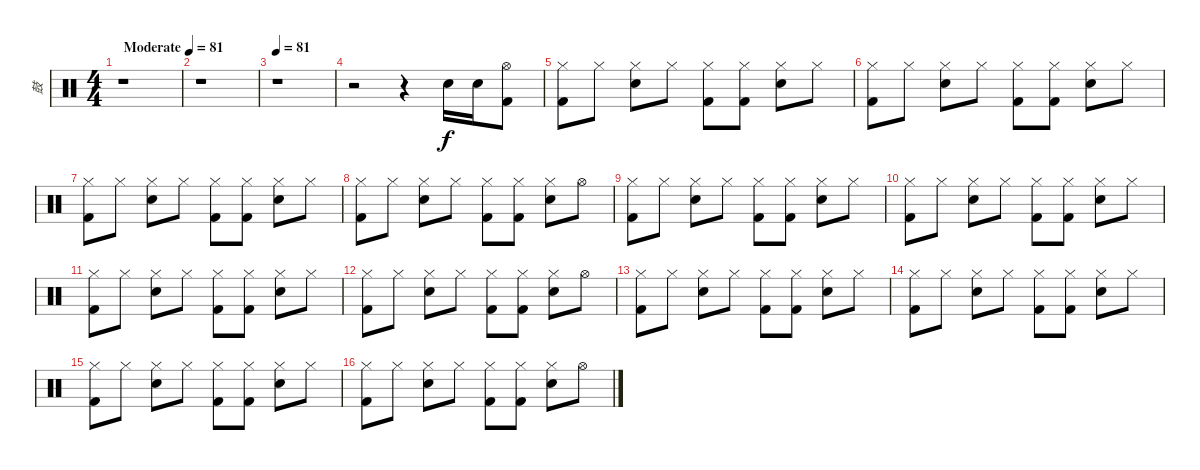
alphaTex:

\track ("鼓" "鼓") {instrument percussion}
\staff {score}
\articulation defaults
\ts (4 4)
\tempo (81 "Moderate")
\clef neutral
\ks c
r.1{dy f} |
r.1 |
\tempo 81
r.1 |
r.2 r.4 "Snare (hit) 2".16 "Snare (hit) 2".16 ("Hi-Hat (open)" "Kick (hit) 2").8 |
("Hi-Hat (closed)" "Kick (hit) 2").8 "Hi-Hat (closed)".8 ("Hi-Hat (closed)" "Snare (hit) 2").8 "Hi-Hat (closed)".8 ("Hi-Hat (closed)" "Kick (hit) 2").8 ("Hi-Hat (closed)" "Kick (hit) 2").8 ("Hi-Hat (closed)" "Snare (hit) 2").8 "Hi-Hat (closed)".8 |
("Hi-Hat (closed)" "Kick (hit) 2").8 "Hi-Hat (closed)".8 ("Hi-Hat (closed)" "Snare (hit) 2").8 "Hi-Hat (closed)".8 ("Hi-Hat (closed)" "Kick (hit) 2").8 ("Hi-Hat (closed)" "Kick (hit) 2").8 ("Hi-Hat (closed)" "Snare (hit) 2").8 "Hi-Hat (closed)".8 |
("Hi-Hat (closed)" "Kick (hit) 2").8 "Hi-Hat (closed)".8 ("Hi-Hat (closed)" "Snare (hit) 2").8 "Hi-Hat (closed)".8 ("Hi-Hat (closed)" "Kick (hit) 2").8 ("Hi-Hat (closed)" "Kick (hit) 2").8 ("Hi-Hat (closed)" "Snare (hit) 2").8 "Hi-Hat (closed)".8 |
("Hi-Hat (closed)" "Kick (hit) 2").8 "Hi-Hat (closed)".8 ("Hi-Hat (closed)" "Snare (hit) 2").8 "Hi-Hat (closed)".8 ("Hi-Hat (closed)" "Kick (hit) 2").8 ("Hi-Hat (closed)" "Kick (hit) 2").8 ("Hi-Hat (closed)" "Snare (hit) 2").8 "Hi-Hat (open)".8 |
("Hi-Hat (closed)" "Kick (hit) 2").8 "Hi-Hat (closed)".8 ("Hi-Hat (closed)" "Snare (hit) 2").8 "Hi-Hat (closed)".8 ("Hi-Hat (closed)" "Kick (hit) 2").8 ("Hi-Hat (closed)" "Kick (hit) 2").8 ("Hi-Hat (closed)" "Snare (hit) 2").8 "Hi-Hat (closed)".8 |
("Hi-Hat (closed)" "Kick (hit) 2").8 "Hi-Hat (closed)".8 ("Hi-Hat (closed)" "Snare (hit) 2").8 "Hi-Hat (closed)".8 ("Hi-Hat (closed)" "Kick (hit) 2").8 ("Hi-Hat (closed)" "Kick (hit) 2").8 ("Hi-Hat (closed)" "Snare (hit) 2").8 "Hi-Hat (closed)".8 |
("Hi-Hat (closed)" "Kick (hit) 2").8 "Hi-Hat (closed)".8 ("Hi-Hat (closed)" "Snare (hit) 2").8 "Hi-Hat (closed)".8 ("Hi-Hat (closed)" "Kick (hit) 2").8 ("Hi-Hat (closed)" "Kick (hit) 2").8 ("Hi-Hat (closed)" "Snare (hit) 2").8 "Hi-Hat (closed)".8 |
("Hi-Hat (closed)" "Kick (hit) 2").8 "Hi-Hat (closed)".8 ("Hi-Hat (closed)" "Snare (hit) 2").8 "Hi-Hat (closed)".8 ("Hi-Hat (closed)" "Kick (hit) 2").8 ("Hi-Hat (closed)" "Kick (hit) 2").8 ("Hi-Hat (closed)" "Snare (hit) 2").8 "Hi-Hat (open)".8 |
("Hi-Hat (closed)" "Kick (hit) 2").8 "Hi-Hat (closed)".8 ("Hi-Hat (closed)" "Snare (hit) 2").8 "Hi-Hat (closed)".8 ("Hi-Hat (closed)" "Kick (hit) 2").8 ("Hi-Hat (closed)" "Kick (hit) 2").8 ("Hi-Hat (closed)" "Snare (hit) 2").8 "Hi-Hat (closed)".8 |
("Hi-Hat (closed)" "Kick (hit) 2").8 "Hi-Hat (closed)".8 ("Hi-Hat (closed)" "Snare (hit) 2").8 "Hi-Hat (closed)".8 ("Hi-Hat (closed)" "Kick (hit) 2").8 ("Hi-Hat (closed)" "Kick (hit) 2").8 ("Hi-Hat (closed)" "Snare (hit) 2").8 "Hi-Hat (closed)".8 |
("Hi-Hat (closed)" "Kick (hit) 2").8 "Hi-Hat (closed)".8 ("Hi-Hat (closed)" "Snare (hit) 2").8 "Hi-Hat (closed)".8 ("Hi-Hat (closed)" "Kick (hit) 2").8 ("Hi-Hat (closed)" "Kick (hit) 2").8 ("Hi-Hat (closed)" "Snare (hit) 2").8 "Hi-Hat (closed)".8 |
("Hi-Hat (closed)" "Kick (hit) 2").8 "Hi-Hat (closed)".8 ("Hi-Hat (closed)" "Snare (hit) 2").8 "Hi-Hat (closed)".8 ("Hi-Hat (closed)" "Kick (hit) 2").8 ("Hi-Hat (closed)" "Kick (hit) 2").8 ("Hi-Hat (closed)" "Snare (hit) 2").8 "Hi-Hat (open)".8
